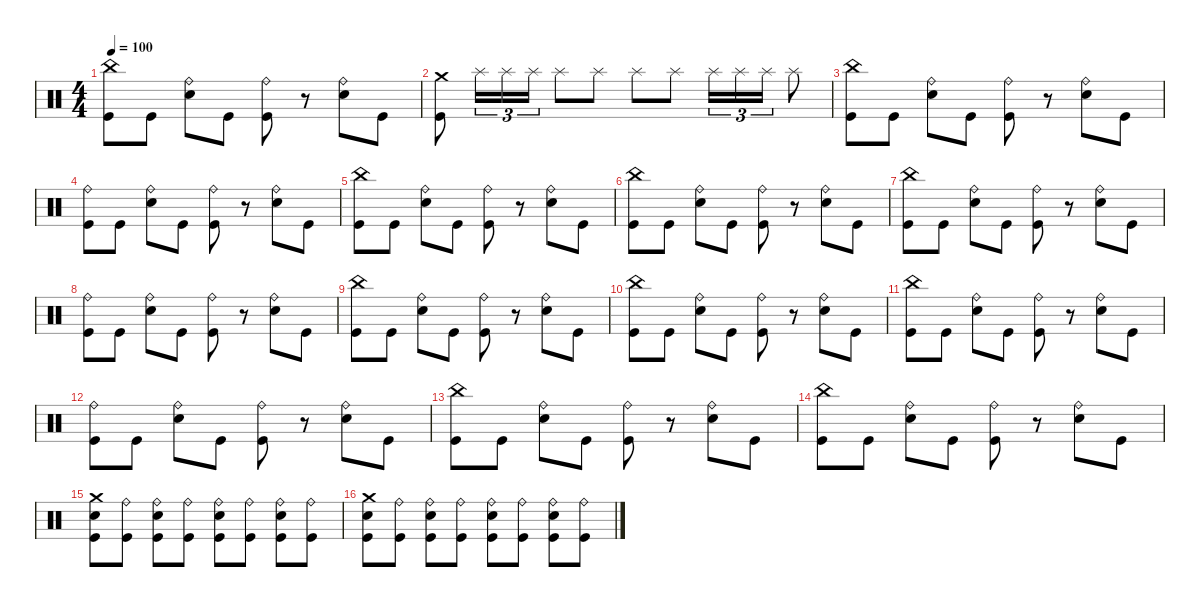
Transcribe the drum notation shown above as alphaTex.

\defaultSystemsLayout 4
\hideDynamics
\bracketExtendMode nobrackets
\singleTrackTrackNamePolicy hidden
\multiTrackTrackNamePolicy hidden
\firstSystemTrackNameMode fullname
\otherSystemsTrackNameOrientation horizontal
\track ("Drumkit" "drm.") {instrument percussion}
\staff {score}
\articulation defaults
\ts (4 4)
\tempo 100
\clef neutral
\ks c
("Kick (hit)" "China (hit)").8{dy mf beam Down} "Kick (hit)".8{beam Down} ("Snare (hit) 2" "Ride (bell)").8{beam Down} "Kick (hit)".8{beam Down} ("Kick (hit)" "Ride (bell)").8{beam Down} r.8{beam Down} ("Snare (hit) 2" "Ride (bell)").8{beam Down} "Kick (hit)".8{beam Down} |
("Crash medium (hit)" "Kick (hit)").8{beam Down} "Splash (hit)".16{tu (3 2) beam Down} "Splash (hit)".16{tu (3 2) beam Down} "Splash (hit)".16{tu (3 2) beam Down} "Splash (hit)".8{beam Down} "Splash (hit)".8{beam Down} "Splash (hit)".8{beam Down} "Splash (hit)".8{beam Down} "Splash (hit)".16{tu (3 2) beam Down} "Splash (hit)".16{tu (3 2) beam Down} "Splash (hit)".16{tu (3 2) beam Down} "Splash (hit)".8{beam Down} |
("Kick (hit)" "China (hit)").8{beam Down} "Kick (hit)".8{beam Down} ("Snare (hit) 2" "Ride (bell)").8{beam Down} "Kick (hit)".8{beam Down} ("Kick (hit)" "Ride (bell)").8{beam Down} r.8{beam Down} ("Snare (hit) 2" "Ride (bell)").8{beam Down} "Kick (hit)".8{beam Down} |
("Kick (hit)" "Ride (bell)").8{beam Down} "Kick (hit)".8{beam Down} ("Snare (hit) 2" "Ride (bell)").8{beam Down} "Kick (hit)".8{beam Down} ("Kick (hit)" "Ride (bell)").8{beam Down} r.8{beam Down} ("Snare (hit) 2" "Ride (bell)").8{beam Down} "Kick (hit)".8{beam Down} |
("Kick (hit)" "China (hit)").8{beam Down} "Kick (hit)".8{beam Down} ("Snare (hit) 2" "Ride (bell)").8{beam Down} "Kick (hit)".8{beam Down} ("Kick (hit)" "Ride (bell)").8{beam Down} r.8{beam Down} ("Snare (hit) 2" "Ride (bell)").8{beam Down} "Kick (hit)".8{beam Down} |
("Kick (hit)" "China (hit)").8{beam Down} "Kick (hit)".8{beam Down} ("Snare (hit) 2" "Ride (bell)").8{beam Down} "Kick (hit)".8{beam Down} ("Kick (hit)" "Ride (bell)").8{beam Down} r.8{beam Down} ("Snare (hit) 2" "Ride (bell)").8{beam Down} "Kick (hit)".8{beam Down} |
("Kick (hit)" "China (hit)").8{beam Down} "Kick (hit)".8{beam Down} ("Snare (hit) 2" "Ride (bell)").8{beam Down} "Kick (hit)".8{beam Down} ("Kick (hit)" "Ride (bell)").8{beam Down} r.8{beam Down} ("Snare (hit) 2" "Ride (bell)").8{beam Down} "Kick (hit)".8{beam Down} |
("Kick (hit)" "Ride (bell)").8{beam Down} "Kick (hit)".8{beam Down} ("Snare (hit) 2" "Ride (bell)").8{beam Down} "Kick (hit)".8{beam Down} ("Kick (hit)" "Ride (bell)").8{beam Down} r.8{beam Down} ("Snare (hit) 2" "Ride (bell)").8{beam Down} "Kick (hit)".8{beam Down} |
("Kick (hit)" "China (hit)").8{beam Down} "Kick (hit)".8{beam Down} ("Snare (hit) 2" "Ride (bell)").8{beam Down} "Kick (hit)".8{beam Down} ("Kick (hit)" "Ride (bell)").8{beam Down} r.8{beam Down} ("Snare (hit) 2" "Ride (bell)").8{beam Down} "Kick (hit)".8{beam Down} |
("Kick (hit)" "China (hit)").8{beam Down} "Kick (hit)".8{beam Down} ("Snare (hit) 2" "Ride (bell)").8{beam Down} "Kick (hit)".8{beam Down} ("Kick (hit)" "Ride (bell)").8{beam Down} r.8{beam Down} ("Snare (hit) 2" "Ride (bell)").8{beam Down} "Kick (hit)".8{beam Down} |
("Kick (hit)" "China (hit)").8{beam Down} "Kick (hit)".8{beam Down} ("Snare (hit) 2" "Ride (bell)").8{beam Down} "Kick (hit)".8{beam Down} ("Kick (hit)" "Ride (bell)").8{beam Down} r.8{beam Down} ("Snare (hit) 2" "Ride (bell)").8{beam Down} "Kick (hit)".8{beam Down} |
("Kick (hit)" "Ride (bell)").8{beam Down} "Kick (hit)".8{beam Down} ("Snare (hit) 2" "Ride (bell)").8{beam Down} "Kick (hit)".8{beam Down} ("Kick (hit)" "Ride (bell)").8{beam Down} r.8{beam Down} ("Snare (hit) 2" "Ride (bell)").8{beam Down} "Kick (hit)".8{beam Down} |
("Kick (hit)" "China (hit)").8{beam Down} "Kick (hit)".8{beam Down} ("Snare (hit) 2" "Ride (bell)").8{beam Down} "Kick (hit)".8{beam Down} ("Kick (hit)" "Ride (bell)").8{beam Down} r.8{beam Down} ("Snare (hit) 2" "Ride (bell)").8{beam Down} "Kick (hit)".8{beam Down} |
("Kick (hit)" "China (hit)").8{beam Down} "Kick (hit)".8{beam Down} ("Snare (hit) 2" "Ride (bell)").8{beam Down} "Kick (hit)".8{beam Down} ("Kick (hit)" "Ride (bell)").8{beam Down} r.8{beam Down} ("Snare (hit) 2" "Ride (bell)").8{beam Down} "Kick (hit)".8{beam Down} |
("Snare (hit) 2" "Kick (hit)" "Crash medium (hit)").8{beam Down} ("Kick (hit)" "Ride (bell)").8{beam Down} ("Snare (hit) 2" "Kick (hit)" "Ride (bell)").8{beam Down} ("Kick (hit)" "Ride (bell)").8{beam Down} ("Kick (hit)" "Snare (hit) 2" "Ride (bell)").8{beam Down} ("Kick (hit)" "Ride (bell)").8{beam Down} ("Kick (hit)" "Snare (hit) 2" "Ride (bell)").8{beam Down} ("Kick (hit)" "Ride (bell)").8{beam Down} |
("Snare (hit) 2" "Kick (hit)" "Crash medium (hit)").8{beam Down} ("Kick (hit)" "Ride (bell)").8{beam Down} ("Snare (hit) 2" "Kick (hit)" "Ride (bell)").8{beam Down} ("Kick (hit)" "Ride (bell)").8{beam Down} ("Kick (hit)" "Snare (hit) 2" "Ride (bell)").8{beam Down} ("Kick (hit)" "Ride (bell)").8{beam Down} ("Kick (hit)" "Snare (hit) 2" "Ride (bell)").8{beam Down} ("Kick (hit)" "Ride (bell)").8{beam Down}
